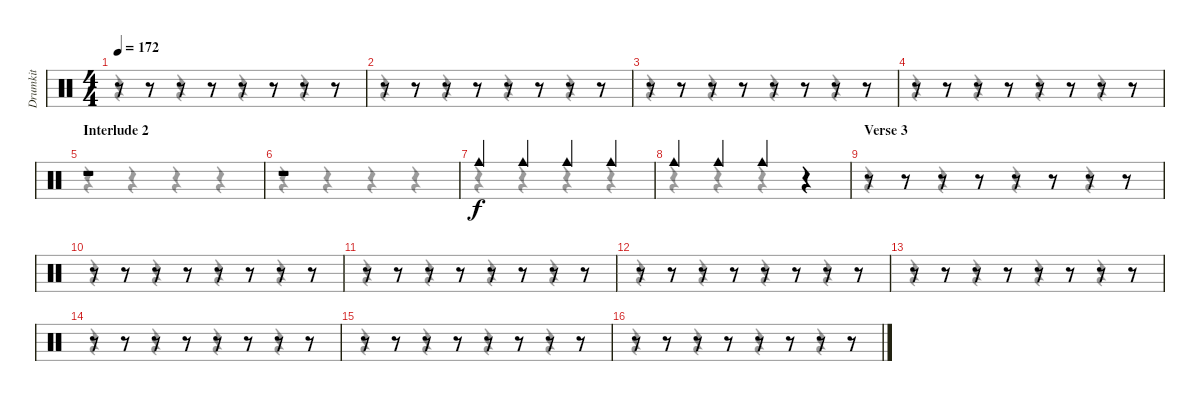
\track ("Drumkit" "Drumkit") {instrument percussion}
\staff {score}
\articulation defaults
\voice
\ts (4 4)
\tempo 172
\clef neutral
\ks c
r.8{dy f} r.8 r.8 r.8 r.8 r.8 r.8 r.8 |
r.8 r.8 r.8 r.8 r.8 r.8 r.8 r.8 |
r.8 r.8 r.8 r.8 r.8 r.8 r.8 r.8 |
r.8 r.8 r.8 r.8 r.8 r.8 r.8 r.8 |
\section ("" "Interlude 2")
r.1 |
r.1 |
"Cowbell medium (hit)".4 "Cowbell medium (hit)".4 "Cowbell medium (hit)".4 "Cowbell medium (hit)".4 |
"Cowbell medium (hit)".4 "Cowbell medium (hit)".4 "Cowbell medium (hit)".4 r.4 |
\section ("" "Verse 3")
r.8 r.8 r.8 r.8 r.8 r.8 r.8 r.8 |
r.8 r.8 r.8 r.8 r.8 r.8 r.8 r.8 |
r.8 r.8 r.8 r.8 r.8 r.8 r.8 r.8 |
r.8 r.8 r.8 r.8 r.8 r.8 r.8 r.8 |
r.8 r.8 r.8 r.8 r.8 r.8 r.8 r.8 |
r.8 r.8 r.8 r.8 r.8 r.8 r.8 r.8 |
r.8 r.8 r.8 r.8 r.8 r.8 r.8 r.8 |
r.8 r.8 r.8 r.8 r.8 r.8 r.8 r.8
\voice
\clef neutral
\ottava regular
\simile none
\ks c
r.4{dy f} r.4 r.4 r.4 |
r.4 r.4 r.4 r.4 |
r.4 r.4 r.4 r.4 |
r.4 r.4 r.4 r.4 |
r.4 r.4 r.4 r.4 |
r.4 r.4 r.4 r.4 |
r.4 r.4 r.4 r.4 |
r.4 r.4 r.4 r.4 |
r.4 r.4 r.4 r.4 |
r.4 r.4 r.4 r.4 |
r.4 r.4 r.4 r.4 |
r.4 r.4 r.4 r.4 |
r.4 r.4 r.4 r.4 |
r.4 r.4 r.4 r.4 |
r.4 r.4 r.4 r.4 |
r.4 r.4 r.4 r.4
